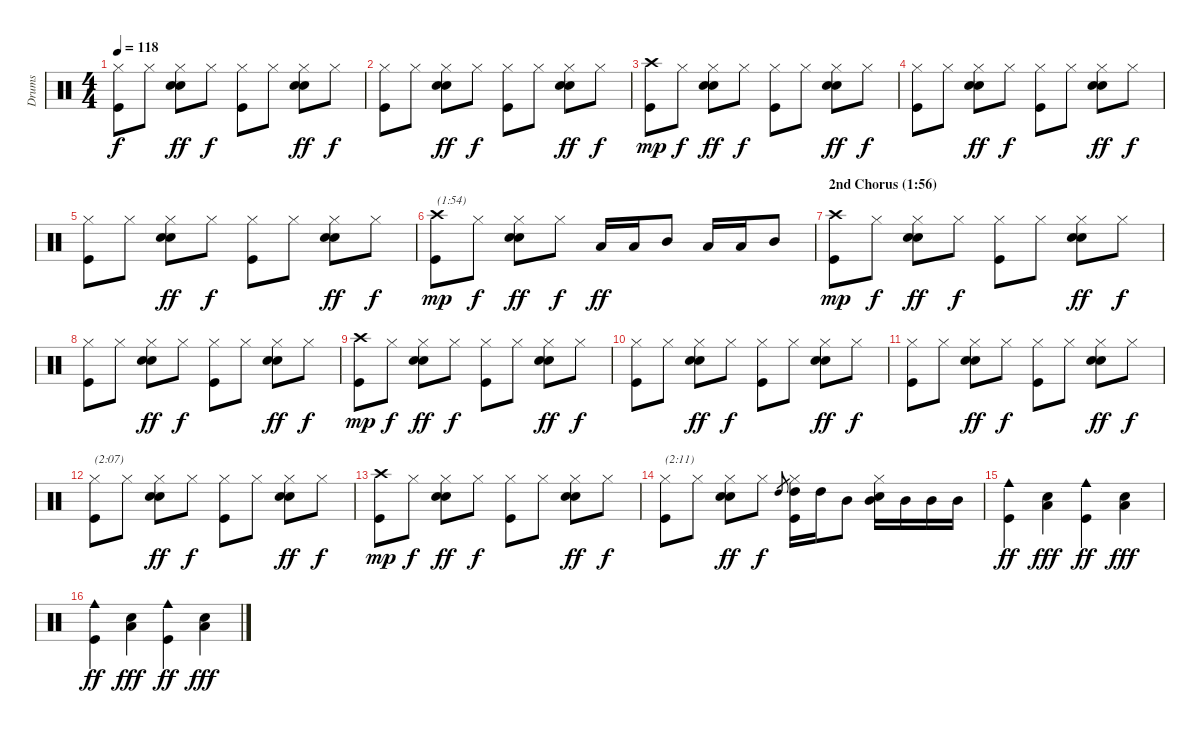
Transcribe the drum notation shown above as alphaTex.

\track ("Drums" "Drums") {instrument percussion}
\staff {score}
\articulation defaults
\ts (4 4)
\tempo 118
\clef neutral
\ks c
("Hi-Hat (closed)" "Kick (hit)").8{dy f} "Hi-Hat (closed)".8 ("Hi-Hat (closed)" "Electric Snare (hit)" "Snare (hit) 2").8{dy ff} "Hi-Hat (closed)".8{dy f} ("Hi-Hat (closed)" "Kick (hit)").8 "Hi-Hat (closed)".8 ("Hi-Hat (closed)" "Electric Snare (hit)" "Snare (hit) 2").8{dy ff} "Hi-Hat (closed)".8{dy f} |
("Hi-Hat (closed)" "Kick (hit)").8 "Hi-Hat (closed)".8 ("Hi-Hat (closed)" "Electric Snare (hit)" "Snare (hit) 2").8{dy ff} "Hi-Hat (closed)".8{dy f} ("Hi-Hat (closed)" "Kick (hit)").8 "Hi-Hat (closed)".8 ("Hi-Hat (closed)" "Electric Snare (hit)" "Snare (hit) 2").8{dy ff} "Hi-Hat (closed)".8{dy f} |
("Crash high (hit)" "Kick (hit)").8{dy mp} "Hi-Hat (closed)".8{dy f} ("Hi-Hat (closed)" "Electric Snare (hit)" "Snare (hit) 2").8{dy ff} "Hi-Hat (closed)".8{dy f} ("Hi-Hat (closed)" "Kick (hit)").8 "Hi-Hat (closed)".8 ("Hi-Hat (closed)" "Electric Snare (hit)" "Snare (hit) 2").8{dy ff} "Hi-Hat (closed)".8{dy f} |
("Hi-Hat (closed)" "Kick (hit)").8 "Hi-Hat (closed)".8 ("Hi-Hat (closed)" "Electric Snare (hit)" "Snare (hit) 2").8{dy ff} "Hi-Hat (closed)".8{dy f} ("Hi-Hat (closed)" "Kick (hit)").8 "Hi-Hat (closed)".8 ("Hi-Hat (closed)" "Electric Snare (hit)" "Snare (hit) 2").8{dy ff} "Hi-Hat (closed)".8{dy f} |
("Hi-Hat (closed)" "Kick (hit)").8 "Hi-Hat (closed)".8 ("Hi-Hat (closed)" "Electric Snare (hit)" "Snare (hit) 2").8{dy ff} "Hi-Hat (closed)".8{dy f} ("Hi-Hat (closed)" "Kick (hit)").8 "Hi-Hat (closed)".8 ("Hi-Hat (closed)" "Electric Snare (hit)" "Snare (hit) 2").8{dy ff} "Hi-Hat (closed)".8{dy f} |
("Crash high (hit)" "Kick (hit)").8{txt "(1:54)" dy mp} "Hi-Hat (closed)".8{dy f} ("Hi-Hat (closed)" "Electric Snare (hit)" "Snare (hit) 2").8{dy ff} "Hi-Hat (closed)".8{dy f} "Low Tom (hit)".16{dy ff} "Low Tom (hit)".16 "Mid Tom (hit)".8 "Low Tom (hit)".16 "Low Tom (hit)".16 "Mid Tom (hit)".8 |
\section ("" "2nd Chorus (1:56)")
("Crash high (hit)" "Kick (hit)").8{dy mp} "Hi-Hat (closed)".8{dy f} ("Hi-Hat (closed)" "Electric Snare (hit)" "Snare (hit) 2").8{dy ff} "Hi-Hat (closed)".8{dy f} ("Hi-Hat (closed)" "Kick (hit)").8 "Hi-Hat (closed)".8 ("Hi-Hat (closed)" "Electric Snare (hit)" "Snare (hit) 2").8{dy ff} "Hi-Hat (closed)".8{dy f} |
("Hi-Hat (closed)" "Kick (hit)").8 "Hi-Hat (closed)".8 ("Hi-Hat (closed)" "Electric Snare (hit)" "Snare (hit) 2").8{dy ff} "Hi-Hat (closed)".8{dy f} ("Hi-Hat (closed)" "Kick (hit)").8 "Hi-Hat (closed)".8 ("Hi-Hat (closed)" "Electric Snare (hit)" "Snare (hit) 2").8{dy ff} "Hi-Hat (closed)".8{dy f} |
("Crash high (hit)" "Kick (hit)").8{dy mp} "Hi-Hat (closed)".8{dy f} ("Hi-Hat (closed)" "Electric Snare (hit)" "Snare (hit) 2").8{dy ff} "Hi-Hat (closed)".8{dy f} ("Hi-Hat (closed)" "Kick (hit)").8 "Hi-Hat (closed)".8 ("Hi-Hat (closed)" "Electric Snare (hit)" "Snare (hit) 2").8{dy ff} "Hi-Hat (closed)".8{dy f} |
("Hi-Hat (closed)" "Kick (hit)").8 "Hi-Hat (closed)".8 ("Hi-Hat (closed)" "Electric Snare (hit)" "Snare (hit) 2").8{dy ff} "Hi-Hat (closed)".8{dy f} ("Hi-Hat (closed)" "Kick (hit)").8 "Hi-Hat (closed)".8 ("Hi-Hat (closed)" "Electric Snare (hit)" "Snare (hit) 2").8{dy ff} "Hi-Hat (closed)".8{dy f} |
("Hi-Hat (closed)" "Kick (hit)").8 "Hi-Hat (closed)".8 ("Hi-Hat (closed)" "Electric Snare (hit)" "Snare (hit) 2").8{dy ff} "Hi-Hat (closed)".8{dy f} ("Hi-Hat (closed)" "Kick (hit)").8 "Hi-Hat (closed)".8 ("Hi-Hat (closed)" "Electric Snare (hit)" "Snare (hit) 2").8{dy ff} "Hi-Hat (closed)".8{dy f} |
("Hi-Hat (closed)" "Kick (hit)").8{txt "(2:07)"} "Hi-Hat (closed)".8 ("Hi-Hat (closed)" "Electric Snare (hit)" "Snare (hit) 2").8{dy ff} "Hi-Hat (closed)".8{dy f} ("Hi-Hat (closed)" "Kick (hit)").8 "Hi-Hat (closed)".8 ("Hi-Hat (closed)" "Electric Snare (hit)" "Snare (hit) 2").8{dy ff} "Hi-Hat (closed)".8{dy f} |
("Crash high (hit)" "Kick (hit)").8{dy mp} "Hi-Hat (closed)".8{dy f} ("Hi-Hat (closed)" "Electric Snare (hit)" "Snare (hit) 2").8{dy ff} "Hi-Hat (closed)".8{dy f} ("Hi-Hat (closed)" "Kick (hit)").8 "Hi-Hat (closed)".8 ("Hi-Hat (closed)" "Electric Snare (hit)" "Snare (hit) 2").8{dy ff} "Hi-Hat (closed)".8{dy f} |
("Hi-Hat (closed)" "Kick (hit)").8{txt "(2:11)"} "Hi-Hat (closed)".8 ("Hi-Hat (closed)" "Electric Snare (hit)" "Snare (hit) 2").8{dy ff} "Hi-Hat (closed)".8{dy f} "High Tom (hit)".8{gr} ("Hi-Hat (closed)" "High Tom (hit)" "Kick (hit)").16 "High Tom (hit)".16 "Mid Tom (hit)".8 ("Hi-Hat (closed)" "Electric Snare (hit)" "Mid Tom (hit)").16 "Mid Tom (hit)".16 "Mid Tom (hit)".16 "Mid Tom (hit)".16 |
("Cowbell medium (hit)" "Kick (hit)").4{dy ff} ("Electric Snare (hit)" "Low Floor Tom (hit)").4{dy fff} ("Cowbell medium (hit)" "Kick (hit)").4{dy ff} ("Electric Snare (hit)" "Low Floor Tom (hit)").4{dy fff} |
("Cowbell medium (hit)" "Kick (hit)").4{dy ff} ("Electric Snare (hit)" "Low Floor Tom (hit)").4{dy fff} ("Cowbell medium (hit)" "Kick (hit)").4{dy ff} ("Electric Snare (hit)" "Low Floor Tom (hit)").4{dy fff}
